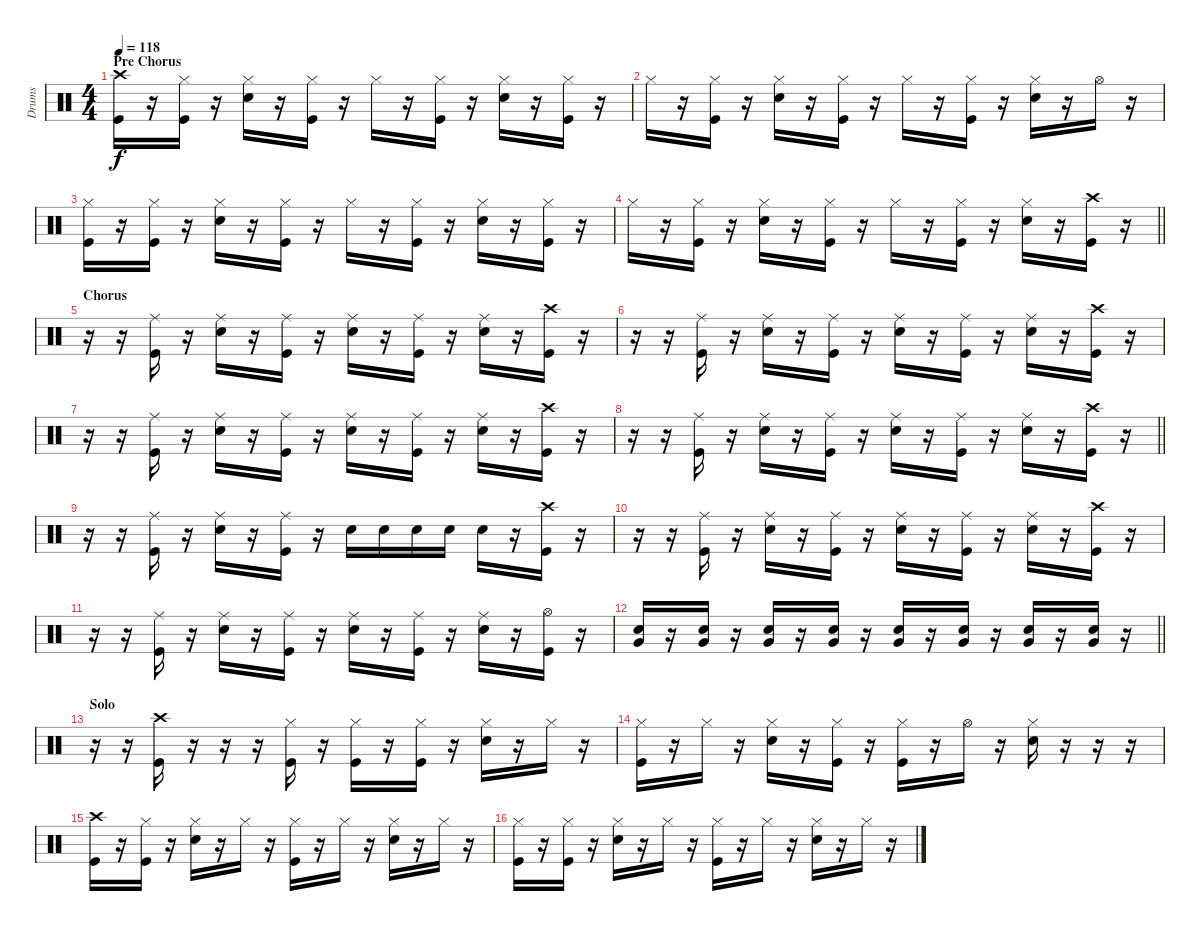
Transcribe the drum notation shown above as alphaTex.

\track ("Drums" "Drums") {instrument percussion}
\staff {score}
\articulation defaults
\ts (4 4)
\section ("" "Pre Chorus")
\tempo 118
\clef neutral
\ks c
("Crash high (hit)" "Kick (hit)").16{dy f} r.16 ("Hi-Hat (closed)" "Kick (hit)").16 r.16 ("Hi-Hat (closed)" "Snare (hit) 2").16 r.16 ("Hi-Hat (closed)" "Kick (hit)").16 r.16 "Hi-Hat (closed)".16 r.16 ("Hi-Hat (closed)" "Kick (hit)").16 r.16 ("Hi-Hat (closed)" "Snare (hit) 2").16 r.16 ("Hi-Hat (closed)" "Kick (hit)").16 r.16 |
"Hi-Hat (closed)".16 r.16 ("Hi-Hat (closed)" "Kick (hit)").16 r.16 ("Hi-Hat (closed)" "Snare (hit) 2").16 r.16 ("Hi-Hat (closed)" "Kick (hit)").16 r.16 "Hi-Hat (closed)".16 r.16 ("Hi-Hat (closed)" "Kick (hit)").16 r.16 ("Hi-Hat (closed)" "Snare (hit) 2").16 r.16 "Hi-Hat (open)".16 r.16 |
("Hi-Hat (closed)" "Kick (hit)").16 r.16 ("Hi-Hat (closed)" "Kick (hit)").16 r.16 ("Hi-Hat (closed)" "Snare (hit) 2").16 r.16 ("Hi-Hat (closed)" "Kick (hit)").16 r.16 "Hi-Hat (closed)".16 r.16 ("Hi-Hat (closed)" "Kick (hit)").16 r.16 ("Hi-Hat (closed)" "Snare (hit) 2").16 r.16 ("Hi-Hat (closed)" "Kick (hit)").16 r.16 |
\barLineRight lightlight "Hi-Hat (closed)".16
r.16 ("Hi-Hat (closed)" "Kick (hit)").16 r.16 ("Hi-Hat (closed)" "Snare (hit) 2").16 r.16 ("Hi-Hat (closed)" "Kick (hit)").16 r.16 "Hi-Hat (closed)".16 r.16 ("Hi-Hat (closed)" "Kick (hit)").16 r.16 ("Hi-Hat (closed)" "Snare (hit) 2").16 r.16 ("Crash high (hit)" "Kick (hit)").16 r.16 |
\section ("" "Chorus")
r.16 r.16 ("Ride (middle)" "Kick (hit)").16 r.16 ("Ride (middle)" "Snare (hit) 2").16 r.16 ("Ride (middle)" "Kick (hit)").16 r.16 ("Ride (middle)" "Snare (hit) 2").16 r.16 ("Ride (middle)" "Kick (hit)").16 r.16 ("Ride (middle)" "Snare (hit) 2").16 r.16 ("Crash high (hit)" "Kick (hit)").16 r.16 |
r.16 r.16 ("Ride (middle)" "Kick (hit)").16 r.16 ("Ride (middle)" "Snare (hit) 2").16 r.16 ("Ride (middle)" "Kick (hit)").16 r.16 ("Ride (middle)" "Snare (hit) 2").16 r.16 ("Ride (middle)" "Kick (hit)").16 r.16 ("Ride (middle)" "Snare (hit) 2").16 r.16 ("Crash high (hit)" "Kick (hit)").16 r.16 |
r.16 r.16 ("Ride (middle)" "Kick (hit)").16 r.16 ("Ride (middle)" "Snare (hit) 2").16 r.16 ("Ride (middle)" "Kick (hit)").16 r.16 ("Ride (middle)" "Snare (hit) 2").16 r.16 ("Ride (middle)" "Kick (hit)").16 r.16 ("Ride (middle)" "Snare (hit) 2").16 r.16 ("Crash high (hit)" "Kick (hit)").16 r.16 |
\barLineRight lightlight
r.16 r.16 ("Ride (middle)" "Kick (hit)").16 r.16 ("Ride (middle)" "Snare (hit) 2").16 r.16 ("Ride (middle)" "Kick (hit)").16 r.16 ("Ride (middle)" "Snare (hit) 2").16 r.16 ("Ride (middle)" "Kick (hit)").16 r.16 ("Ride (middle)" "Snare (hit) 2").16 r.16 ("Crash high (hit)" "Kick (hit)").16 r.16 |
r.16 r.16 ("Ride (middle)" "Kick (hit)").16 r.16 ("Ride (middle)" "Snare (hit) 2").16 r.16 ("Ride (middle)" "Kick (hit)").16 r.16 "Snare (hit) 2".16 "Snare (hit) 2".16 "Snare (hit) 2".16 "Snare (hit) 2".16 "Snare (hit) 2".16 r.16 ("Crash high (hit)" "Kick (hit)").16 r.16 |
r.16 r.16 ("Ride (middle)" "Kick (hit)").16 r.16 ("Ride (middle)" "Snare (hit) 2").16 r.16 ("Ride (middle)" "Kick (hit)").16 r.16 ("Ride (middle)" "Snare (hit) 2").16 r.16 ("Ride (middle)" "Kick (hit)").16 r.16 ("Ride (middle)" "Snare (hit) 2").16 r.16 ("Crash high (hit)" "Kick (hit)").16 r.16 |
r.16 r.16 ("Ride (middle)" "Kick (hit)").16 r.16 ("Ride (middle)" "Snare (hit) 2").16 r.16 ("Ride (middle)" "Kick (hit)").16 r.16 ("Ride (middle)" "Snare (hit) 2").16 r.16 ("Ride (middle)" "Kick (hit)").16 r.16 ("Ride (middle)" "Snare (hit) 2").16 r.16 ("Hi-Hat (open)" "Kick (hit)").16 r.16 |
\barLineRight lightlight
("Very Low Tom (hit)" "Snare (hit) 2").16 r.16 ("Very Low Tom (hit)" "Snare (hit) 2").16 r.16 ("Very Low Tom (hit)" "Snare (hit) 2").16 r.16 ("Very Low Tom (hit)" "Snare (hit) 2").16 r.16 ("Very Low Tom (hit)" "Snare (hit) 2").16 r.16 ("Very Low Tom (hit)" "Snare (hit) 2").16 r.16 ("Very Low Tom (hit)" "Snare (hit) 2").16 r.16 ("Very Low Tom (hit)" "Snare (hit) 2").16 r.16 |
\section ("" "Solo")
r.16 r.16 ("Crash high (hit)" "Kick (hit)").16 r.16 r.16 r.16 ("Hi-Hat (closed)" "Kick (hit)").16 r.16 ("Hi-Hat (closed)" "Kick (hit)").16 r.16 ("Hi-Hat (closed)" "Kick (hit)").16 r.16 ("Hi-Hat (closed)" "Snare (hit) 2").16 r.16 "Hi-Hat (closed)".16 r.16 |
("Hi-Hat (closed)" "Kick (hit)").16 r.16 "Hi-Hat (closed)".16 r.16 ("Hi-Hat (closed)" "Snare (hit) 2").16 r.16 ("Hi-Hat (closed)" "Kick (hit)").16 r.16 ("Hi-Hat (closed)" "Kick (hit)").16 r.16 "Hi-Hat (open)".16 r.16 ("Hi-Hat (closed)" "Snare (hit) 2").16 r.16 r.16 r.16 |
("Crash high (hit)" "Kick (hit)").16 r.16 ("Hi-Hat (closed)" "Kick (hit)").16 r.16 ("Hi-Hat (closed)" "Snare (hit) 2").16 r.16 "Hi-Hat (closed)".16 r.16 ("Hi-Hat (closed)" "Kick (hit)").16 r.16 "Hi-Hat (closed)".16 r.16 ("Hi-Hat (closed)" "Snare (hit) 2").16 r.16 "Hi-Hat (closed)".16 r.16 |
("Hi-Hat (closed)" "Kick (hit)").16 r.16 ("Hi-Hat (closed)" "Kick (hit)").16 r.16 ("Hi-Hat (closed)" "Snare (hit) 2").16 r.16 "Hi-Hat (closed)".16 r.16 ("Hi-Hat (closed)" "Kick (hit)").16 r.16 "Hi-Hat (closed)".16 r.16 ("Hi-Hat (closed)" "Snare (hit) 2").16 r.16 "Hi-Hat (closed)".16 r.16
